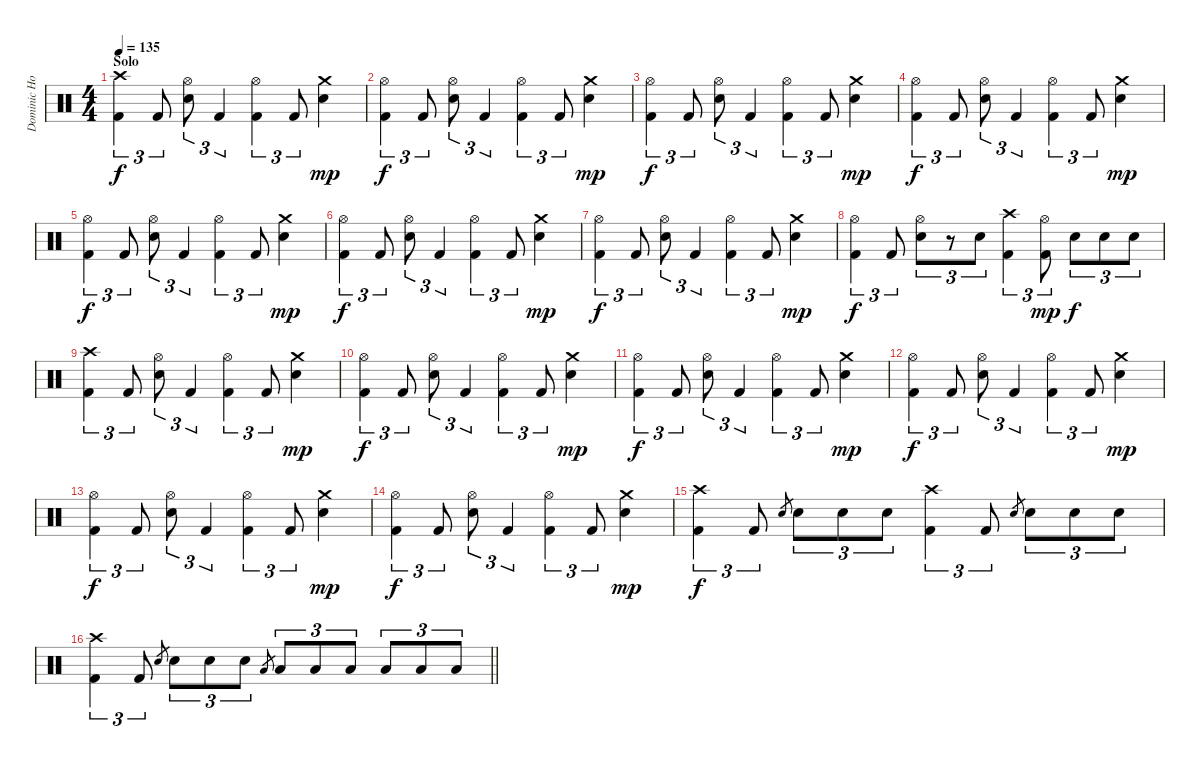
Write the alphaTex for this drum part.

\track ("Dominic Howard (Drums)" "Dominic Ho") {instrument percussion}
\staff {score}
\articulation defaults
\ts (4 4)
\section ("" "Solo")
\tempo 135
\clef neutral
\ks c
("Crash high (hit)" "Kick (hit) 2").4{tu (3 2) dy f} "Kick (hit) 2".8{tu (3 2)} ("Hi-Hat (open)" "Electric Snare (hit)").8{tu (3 2)} "Kick (hit) 2".4{tu (3 2)} ("Hi-Hat (open)" "Kick (hit) 2").4{tu (3 2)} "Kick (hit) 2".8{tu (3 2)} ("Crash medium (hit)" "Electric Snare (hit)").4{dy mp} |
("Hi-Hat (open)" "Kick (hit) 2").4{tu (3 2) dy f} "Kick (hit) 2".8{tu (3 2)} ("Hi-Hat (open)" "Electric Snare (hit)").8{tu (3 2)} "Kick (hit) 2".4{tu (3 2)} ("Hi-Hat (open)" "Kick (hit) 2").4{tu (3 2)} "Kick (hit) 2".8{tu (3 2)} ("Crash medium (hit)" "Electric Snare (hit)").4{dy mp} |
("Hi-Hat (open)" "Kick (hit) 2").4{tu (3 2) dy f} "Kick (hit) 2".8{tu (3 2)} ("Hi-Hat (open)" "Electric Snare (hit)").8{tu (3 2)} "Kick (hit) 2".4{tu (3 2)} ("Hi-Hat (open)" "Kick (hit) 2").4{tu (3 2)} "Kick (hit) 2".8{tu (3 2)} ("Crash medium (hit)" "Electric Snare (hit)").4{dy mp} |
("Hi-Hat (open)" "Kick (hit) 2").4{tu (3 2) dy f} "Kick (hit) 2".8{tu (3 2)} ("Hi-Hat (open)" "Electric Snare (hit)").8{tu (3 2)} "Kick (hit) 2".4{tu (3 2)} ("Hi-Hat (open)" "Kick (hit) 2").4{tu (3 2)} "Kick (hit) 2".8{tu (3 2)} ("Crash medium (hit)" "Electric Snare (hit)").4{dy mp} |
("Hi-Hat (open)" "Kick (hit) 2").4{tu (3 2) dy f} "Kick (hit) 2".8{tu (3 2)} ("Hi-Hat (open)" "Electric Snare (hit)").8{tu (3 2)} "Kick (hit) 2".4{tu (3 2)} ("Hi-Hat (open)" "Kick (hit) 2").4{tu (3 2)} "Kick (hit) 2".8{tu (3 2)} ("Crash medium (hit)" "Electric Snare (hit)").4{dy mp} |
("Hi-Hat (open)" "Kick (hit) 2").4{tu (3 2) dy f} "Kick (hit) 2".8{tu (3 2)} ("Hi-Hat (open)" "Electric Snare (hit)").8{tu (3 2)} "Kick (hit) 2".4{tu (3 2)} ("Hi-Hat (open)" "Kick (hit) 2").4{tu (3 2)} "Kick (hit) 2".8{tu (3 2)} ("Crash medium (hit)" "Electric Snare (hit)").4{dy mp} |
("Hi-Hat (open)" "Kick (hit) 2").4{tu (3 2) dy f} "Kick (hit) 2".8{tu (3 2)} ("Hi-Hat (open)" "Electric Snare (hit)").8{tu (3 2)} "Kick (hit) 2".4{tu (3 2)} ("Hi-Hat (open)" "Kick (hit) 2").4{tu (3 2)} "Kick (hit) 2".8{tu (3 2)} ("Crash medium (hit)" "Electric Snare (hit)").4{dy mp} |
("Hi-Hat (open)" "Kick (hit) 2").4{tu (3 2) dy f} "Kick (hit) 2".8{tu (3 2)} ("Hi-Hat (open)" "Electric Snare (hit)").8{tu (3 2)} r.8{tu (3 2)} "Electric Snare (hit)".8{tu (3 2)} ("Crash high (hit)" "Kick (hit) 2").4{tu (3 2)} ("Hi-Hat (open)" "Kick (hit) 2").8{tu (3 2) dy mp} "Electric Snare (hit)".8{tu (3 2) dy f} "Electric Snare (hit)".8{tu (3 2)} "Electric Snare (hit)".8{tu (3 2)} |
("Crash high (hit)" "Kick (hit) 2").4{tu (3 2)} "Kick (hit) 2".8{tu (3 2)} ("Hi-Hat (open)" "Electric Snare (hit)").8{tu (3 2)} "Kick (hit) 2".4{tu (3 2)} ("Hi-Hat (open)" "Kick (hit) 2").4{tu (3 2)} "Kick (hit) 2".8{tu (3 2)} ("Crash medium (hit)" "Electric Snare (hit)").4{dy mp} |
("Hi-Hat (open)" "Kick (hit) 2").4{tu (3 2) dy f} "Kick (hit) 2".8{tu (3 2)} ("Hi-Hat (open)" "Electric Snare (hit)").8{tu (3 2)} "Kick (hit) 2".4{tu (3 2)} ("Hi-Hat (open)" "Kick (hit) 2").4{tu (3 2)} "Kick (hit) 2".8{tu (3 2)} ("Crash medium (hit)" "Electric Snare (hit)").4{dy mp} |
("Hi-Hat (open)" "Kick (hit) 2").4{tu (3 2) dy f} "Kick (hit) 2".8{tu (3 2)} ("Hi-Hat (open)" "Electric Snare (hit)").8{tu (3 2)} "Kick (hit) 2".4{tu (3 2)} ("Hi-Hat (open)" "Kick (hit) 2").4{tu (3 2)} "Kick (hit) 2".8{tu (3 2)} ("Crash medium (hit)" "Electric Snare (hit)").4{dy mp} |
("Hi-Hat (open)" "Kick (hit) 2").4{tu (3 2) dy f} "Kick (hit) 2".8{tu (3 2)} ("Hi-Hat (open)" "Electric Snare (hit)").8{tu (3 2)} "Kick (hit) 2".4{tu (3 2)} ("Hi-Hat (open)" "Kick (hit) 2").4{tu (3 2)} "Kick (hit) 2".8{tu (3 2)} ("Crash medium (hit)" "Electric Snare (hit)").4{dy mp} |
("Hi-Hat (open)" "Kick (hit) 2").4{tu (3 2) dy f} "Kick (hit) 2".8{tu (3 2)} ("Hi-Hat (open)" "Electric Snare (hit)").8{tu (3 2)} "Kick (hit) 2".4{tu (3 2)} ("Hi-Hat (open)" "Kick (hit) 2").4{tu (3 2)} "Kick (hit) 2".8{tu (3 2)} ("Crash medium (hit)" "Electric Snare (hit)").4{dy mp} |
("Hi-Hat (open)" "Kick (hit) 2").4{tu (3 2) dy f} "Kick (hit) 2".8{tu (3 2)} ("Hi-Hat (open)" "Electric Snare (hit)").8{tu (3 2)} "Kick (hit) 2".4{tu (3 2)} ("Hi-Hat (open)" "Kick (hit) 2").4{tu (3 2)} "Kick (hit) 2".8{tu (3 2)} ("Crash medium (hit)" "Electric Snare (hit)").4{dy mp} |
("Crash high (hit)" "Kick (hit) 2").4{tu (3 2) dy f} "Kick (hit) 2".8{tu (3 2)} "Electric Snare (hit)".8{gr} "Electric Snare (hit)".8{tu (3 2)} "Electric Snare (hit)".8{tu (3 2)} "Electric Snare (hit)".8{tu (3 2)} ("Crash high (hit)" "Kick (hit) 2").4{tu (3 2)} "Kick (hit) 2".8{tu (3 2)} "Electric Snare (hit)".8{gr} "Electric Snare (hit)".8{tu (3 2)} "Electric Snare (hit)".8{tu (3 2)} "Electric Snare (hit)".8{tu (3 2)} |
\barLineRight lightlight
("Crash high (hit)" "Kick (hit) 2").4{tu (3 2)} "Kick (hit) 2".8{tu (3 2)} "Electric Snare (hit)".8{gr} "Electric Snare (hit)".8{tu (3 2)} "Electric Snare (hit)".8{tu (3 2)} "Electric Snare (hit)".8{tu (3 2)} "Low Tom (hit)".8{gr} "Low Tom (hit)".8{tu (3 2)} "Low Tom (hit)".8{tu (3 2)} "Low Tom (hit)".8{tu (3 2)} "Low Floor Tom (hit)".8{tu (3 2)} "Low Floor Tom (hit)".8{tu (3 2)} "Low Floor Tom (hit)".8{tu (3 2)}
